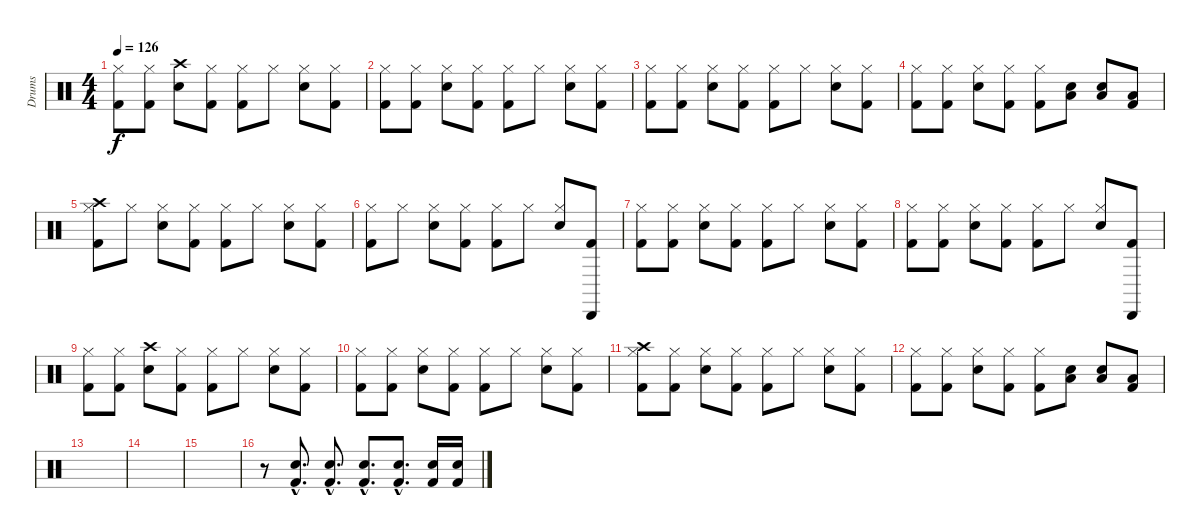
\track ("Drums" "Drums") {instrument percussion}
\staff {score}
\articulation defaults
\ts (4 4)
\tempo 126
\clef neutral
\ks c
("Hi-Hat (closed)" "Kick (hit) 2").8{dy f} ("Hi-Hat (closed)" "Kick (hit) 2").8 ("Crash high (hit)" "Snare (hit) 2").8 ("Hi-Hat (closed)" "Kick (hit) 2").8 ("Hi-Hat (closed)" "Kick (hit) 2").8 "Hi-Hat (closed)".8 ("Hi-Hat (closed)" "Snare (hit) 2").8 ("Hi-Hat (closed)" "Kick (hit) 2").8 |
("Hi-Hat (closed)" "Kick (hit) 2").8 ("Hi-Hat (closed)" "Kick (hit) 2").8 ("Hi-Hat (closed)" "Snare (hit) 2").8 ("Hi-Hat (closed)" "Kick (hit) 2").8 ("Hi-Hat (closed)" "Kick (hit) 2").8 "Hi-Hat (closed)".8 ("Hi-Hat (closed)" "Snare (hit) 2").8 ("Hi-Hat (closed)" "Kick (hit) 2").8 |
("Hi-Hat (closed)" "Kick (hit) 2").8 ("Hi-Hat (closed)" "Kick (hit) 2").8 ("Hi-Hat (closed)" "Snare (hit) 2").8 ("Hi-Hat (closed)" "Kick (hit) 2").8 ("Hi-Hat (closed)" "Kick (hit) 2").8 "Hi-Hat (closed)".8 ("Hi-Hat (closed)" "Snare (hit) 2").8 ("Hi-Hat (closed)" "Kick (hit) 2").8 |
("Hi-Hat (closed)" "Kick (hit) 2").8 ("Hi-Hat (closed)" "Kick (hit) 2").8 ("Hi-Hat (closed)" "Snare (hit) 2").8 ("Hi-Hat (closed)" "Kick (hit) 2").8 ("Hi-Hat (closed)" "Kick (hit) 2").8 ("Low Tom (hit)" "Snare (hit) 2").8 ("Low Tom (hit)" "Snare (hit) 2").8 ("Low Tom (hit)" "Kick (hit) 2").8 |
("Crash high (hit)" "Hi-Hat (closed)" "Kick (hit) 2").8 "Hi-Hat (closed)".8 ("Hi-Hat (closed)" "Snare (hit) 2").8 ("Hi-Hat (closed)" "Kick (hit) 2").8 ("Hi-Hat (closed)" "Kick (hit) 2").8 "Hi-Hat (closed)".8 ("Hi-Hat (closed)" "Snare (hit) 2").8 ("Hi-Hat (closed)" "Kick (hit) 2").8 |
("Hi-Hat (closed)" "Kick (hit) 2").8 "Hi-Hat (closed)".8 ("Hi-Hat (closed)" "Snare (hit) 2").8 ("Hi-Hat (closed)" "Kick (hit) 2").8 ("Hi-Hat (closed)" "Kick (hit) 2").8 "Hi-Hat (closed)".8 ("Hi-Hat (closed)" "Snare (hit) 2").8 ("Cabasa (hit)" "Kick (hit) 2").8 |
("Hi-Hat (closed)" "Kick (hit) 2").8 ("Hi-Hat (closed)" "Kick (hit) 2").8 ("Hi-Hat (closed)" "Snare (hit) 2").8 ("Hi-Hat (closed)" "Kick (hit) 2").8 ("Hi-Hat (closed)" "Kick (hit) 2").8 "Hi-Hat (closed)".8 ("Hi-Hat (closed)" "Snare (hit) 2").8 ("Hi-Hat (closed)" "Kick (hit) 2").8 |
("Hi-Hat (closed)" "Kick (hit) 2").8 ("Hi-Hat (closed)" "Kick (hit) 2").8 ("Hi-Hat (closed)" "Snare (hit) 2").8 ("Hi-Hat (closed)" "Kick (hit) 2").8 ("Hi-Hat (closed)" "Kick (hit) 2").8 "Hi-Hat (closed)".8 ("Hi-Hat (closed)" "Snare (hit) 2").8 ("Cabasa (hit)" "Kick (hit) 2").8 |
("Hi-Hat (closed)" "Kick (hit) 2").8 ("Hi-Hat (closed)" "Kick (hit) 2").8 ("Crash high (hit)" "Snare (hit) 2").8 ("Hi-Hat (closed)" "Kick (hit) 2").8 ("Hi-Hat (closed)" "Kick (hit) 2").8 "Hi-Hat (closed)".8 ("Hi-Hat (closed)" "Snare (hit) 2").8 ("Hi-Hat (closed)" "Kick (hit) 2").8 |
("Hi-Hat (closed)" "Kick (hit) 2").8 ("Hi-Hat (closed)" "Kick (hit) 2").8 ("Hi-Hat (closed)" "Snare (hit) 2").8 ("Hi-Hat (closed)" "Kick (hit) 2").8 ("Hi-Hat (closed)" "Kick (hit) 2").8 "Hi-Hat (closed)".8 ("Hi-Hat (closed)" "Snare (hit) 2").8 ("Hi-Hat (closed)" "Kick (hit) 2").8 |
("Crash high (hit)" "Hi-Hat (closed)" "Kick (hit) 2").8 ("Hi-Hat (closed)" "Kick (hit) 2").8 ("Hi-Hat (closed)" "Snare (hit) 2").8 ("Hi-Hat (closed)" "Kick (hit) 2").8 ("Hi-Hat (closed)" "Kick (hit) 2").8 "Hi-Hat (closed)".8 ("Hi-Hat (closed)" "Snare (hit) 2").8 ("Hi-Hat (closed)" "Kick (hit) 2").8 |
("Hi-Hat (closed)" "Kick (hit) 2").8 ("Hi-Hat (closed)" "Kick (hit) 2").8 ("Hi-Hat (closed)" "Snare (hit) 2").8 ("Hi-Hat (closed)" "Kick (hit) 2").8 ("Hi-Hat (closed)" "Kick (hit) 2").8 ("Low Tom (hit)" "Snare (hit) 2").8 ("Low Tom (hit)" "Snare (hit) 2").8 ("Low Tom (hit)" "Kick (hit) 2").8 |
|
|
|
r.8 ("Snare (hit) 2"{hac} "Kick (hit) 2"{hac}).8{d} ("Snare (hit) 2"{hac} "Kick (hit) 2"{hac}).8{d} ("Snare (hit) 2"{hac} "Kick (hit) 2"{hac}).8{d} ("Snare (hit) 2"{hac} "Kick (hit) 2"{hac}).8{d} ("Snare (hit) 2" "Kick (hit) 2").16 ("Snare (hit) 2" "Kick (hit) 2").16
